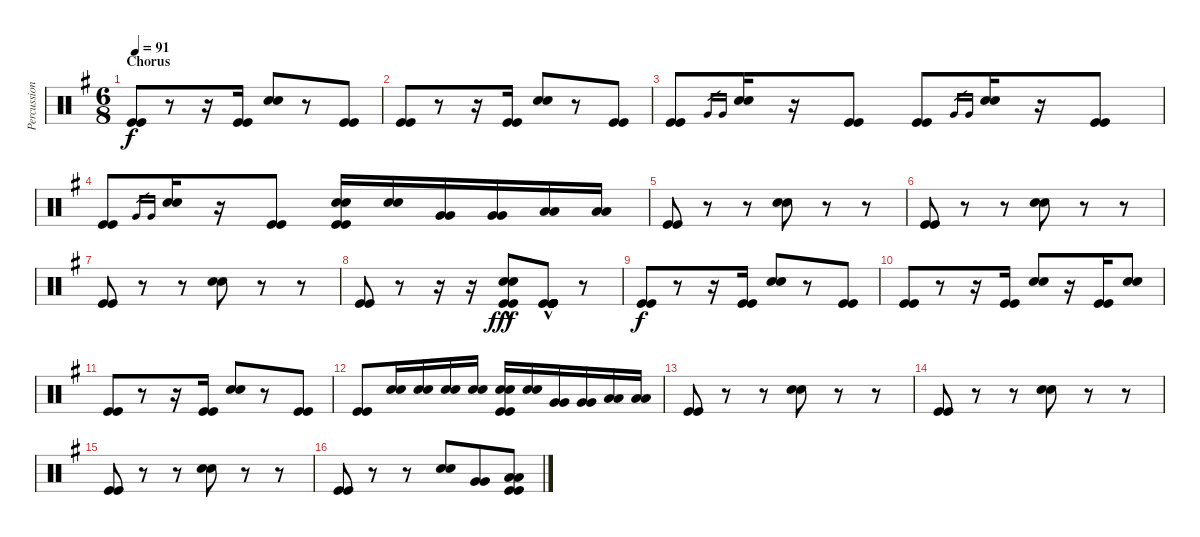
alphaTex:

\track ("Percussion (For Volume)" "Percussion") {instrument percussion}
\staff {score}
\articulation defaults
\ts (6 8)
\section ("" "Chorus")
\tempo 91
\clef neutral
\ks eminor
("Kick (hit)" "Kick (hit)").8{dy f} r.8 r.16 ("Kick (hit)" "Kick (hit)").16 ("Electric Snare (hit)" "Electric Snare (hit)").8 r.8 ("Kick (hit)" "Kick (hit)").8 |
("Kick (hit)" "Kick (hit)").8 r.8 r.16 ("Kick (hit)" "Kick (hit)").16 ("Electric Snare (hit)" "Electric Snare (hit)").8 r.8 ("Kick (hit)" "Kick (hit)").8 |
("Kick (hit)" "Kick (hit)").8 "Very Low Tom (hit)".16{gr} "Very Low Tom (hit)".16{gr} ("Electric Snare (hit)" "Electric Snare (hit)").16 r.16 ("Kick (hit)" "Kick (hit)").8 ("Kick (hit)" "Kick (hit)").8 "Very Low Tom (hit)".16{gr} "Very Low Tom (hit)".16{gr} ("Electric Snare (hit)" "Electric Snare (hit)").16 r.16 ("Kick (hit)" "Kick (hit)").8 |
("Kick (hit)" "Kick (hit)").8 "Very Low Tom (hit)".16{gr} "Very Low Tom (hit)".16{gr} ("Electric Snare (hit)" "Electric Snare (hit)").16 r.16 ("Kick (hit)" "Kick (hit)").8 ("Electric Snare (hit)" "Electric Snare (hit)" "Kick (hit)" "Kick (hit)").16 ("Electric Snare (hit)" "Electric Snare (hit)").16 ("Very Low Tom (hit)" "Very Low Tom (hit)").16 ("Very Low Tom (hit)" "Very Low Tom (hit)").16 ("Low Floor Tom (hit)" "Low Floor Tom (hit)").16 ("Low Floor Tom (hit)" "Low Floor Tom (hit)").16 |
("Kick (hit)" "Kick (hit)").8 r.8 r.8 ("Electric Snare (hit)" "Electric Snare (hit)").8 r.8 r.8 |
("Kick (hit)" "Kick (hit)").8 r.8 r.8 ("Electric Snare (hit)" "Electric Snare (hit)").8 r.8 r.8 |
("Kick (hit)" "Kick (hit)").8 r.8 r.8 ("Electric Snare (hit)" "Electric Snare (hit)").8 r.8 r.8 |
("Kick (hit)" "Kick (hit)").8 r.8 r.16 r.16 ("Electric Snare (hit)"{hac} "Electric Snare (hit)"{hac} "Kick (hit)"{hac} "Kick (hit)"{hac}).8{dy fff} ("Kick (hit)"{hac} "Kick (hit)"{hac} "Kick (hit)"{hac} "Kick (hit)"{hac} "Kick (hit)"{hac} "Kick (hit)"{hac}).8 r.8 |
("Kick (hit)" "Kick (hit)").8{dy f} r.8 r.16 ("Kick (hit)" "Kick (hit)").16 ("Electric Snare (hit)" "Electric Snare (hit)").8 r.8 ("Kick (hit)" "Kick (hit)").8 |
("Kick (hit)" "Kick (hit)").8 r.8 r.16 ("Kick (hit)" "Kick (hit)").16 ("Electric Snare (hit)" "Electric Snare (hit)").8 r.16 ("Kick (hit)" "Kick (hit)").16 ("Electric Snare (hit)" "Electric Snare (hit)").8 |
("Kick (hit)" "Kick (hit)").8 r.8 r.16 ("Kick (hit)" "Kick (hit)").16 ("Electric Snare (hit)" "Electric Snare (hit)").8 r.8 ("Kick (hit)" "Kick (hit)").8 |
("Kick (hit)" "Kick (hit)").8 ("Electric Snare (hit)" "Electric Snare (hit)").16 ("Electric Snare (hit)" "Electric Snare (hit)").16 ("Electric Snare (hit)" "Electric Snare (hit)").16 ("Electric Snare (hit)" "Electric Snare (hit)").16 ("Electric Snare (hit)" "Electric Snare (hit)" "Kick (hit)" "Kick (hit)").16 ("Electric Snare (hit)" "Electric Snare (hit)").16 ("Very Low Tom (hit)" "Very Low Tom (hit)").16 ("Very Low Tom (hit)" "Very Low Tom (hit)").16 ("Low Floor Tom (hit)" "Low Floor Tom (hit)").16 ("Low Floor Tom (hit)" "Low Floor Tom (hit)").16 |
("Kick (hit)" "Kick (hit)").8 r.8 r.8 ("Electric Snare (hit)" "Electric Snare (hit)").8 r.8 r.8 |
("Kick (hit)" "Kick (hit)").8 r.8 r.8 ("Electric Snare (hit)" "Electric Snare (hit)").8 r.8 r.8 |
("Kick (hit)" "Kick (hit)").8 r.8 r.8 ("Electric Snare (hit)" "Electric Snare (hit)").8 r.8 r.8 |
("Kick (hit)" "Kick (hit)").8 r.8 r.8 ("Electric Snare (hit)" "Electric Snare (hit)").8 ("Very Low Tom (hit)" "Very Low Tom (hit)").8 ("Low Floor Tom (hit)" "Low Floor Tom (hit)" "Kick (hit)" "Kick (hit)").8
